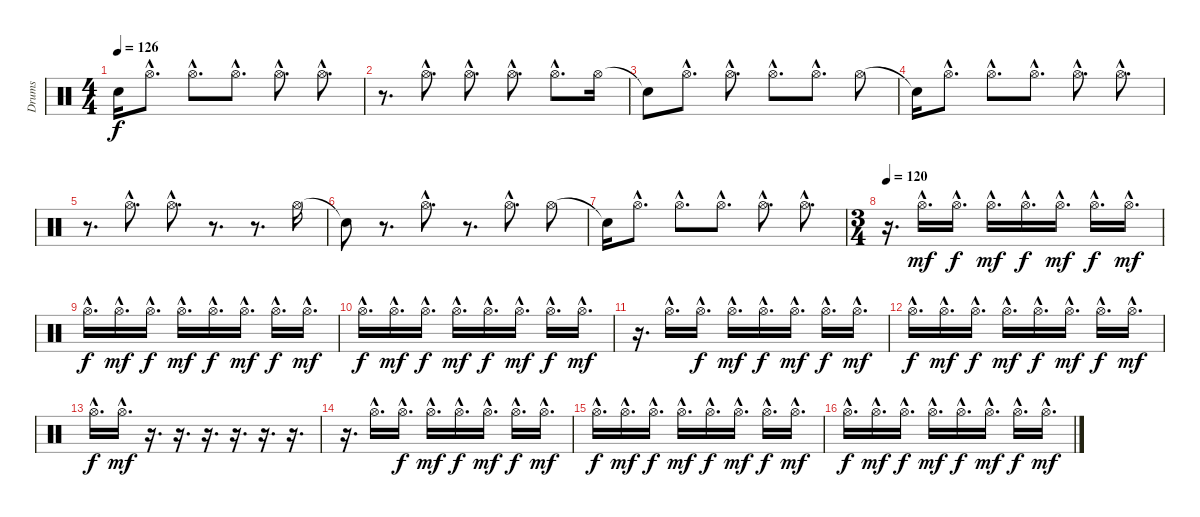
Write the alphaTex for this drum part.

\track ("Drums" "Drums") {instrument percussion}
\staff {score}
\articulation defaults
\ts (4 4)
\tempo 126
\clef neutral
\ks c "Snare (hit)"{t}.16{dy f} "Hi-Hat (open)"{hac}.8{d} "Hi-Hat (open)"{hac}.8{d} "Hi-Hat (open)"{hac}.8{d} "Hi-Hat (open)"{hac}.8{d} "Hi-Hat (open)"{hac}.8{d}
|
r.8{d} "Hi-Hat (open)"{hac}.8{d} "Hi-Hat (open)"{hac}.8{d} "Hi-Hat (open)"{hac}.8{d} "Hi-Hat (open)"{hac}.8{d} "Hi-Hat (open)".16 |
"Snare (hit)"{t}.8 "Hi-Hat (open)"{hac}.8{d} "Hi-Hat (open)"{hac}.8{d} "Hi-Hat (open)"{hac}.8{d} "Hi-Hat (open)"{hac}.8{d} "Hi-Hat (open)".8 |
"Snare (hit)"{t}.16 "Hi-Hat (open)"{hac}.8{d} "Hi-Hat (open)"{hac}.8{d} "Hi-Hat (open)"{hac}.8{d} "Hi-Hat (open)"{hac}.8{d} "Hi-Hat (open)"{hac}.8{d} |
r.8{d} "Hi-Hat (open)"{hac}.8{d} "Hi-Hat (open)"{hac}.8{d} r.8{d} r.8{d} "Hi-Hat (open)".16 |
"Snare (hit)"{t}.8 r.8{d} "Hi-Hat (open)"{hac}.8{d} r.8{d} "Hi-Hat (open)"{hac}.8{d} "Hi-Hat (open)".8 |
"Snare (hit)"{t}.16 "Hi-Hat (open)"{hac}.8{d} "Hi-Hat (open)"{hac}.8{d} "Hi-Hat (open)"{hac}.8{d} "Hi-Hat (open)"{hac}.8{d} "Hi-Hat (open)"{hac}.8{d} |
\ts (3 4)
\section ("" "")
\tempo 120
r.16{d} "Hi-Hat (open)"{hac}.16{d dy mf} "Hi-Hat (open)"{hac}.16{d dy f} "Hi-Hat (open)"{hac}.16{d dy mf} "Hi-Hat (open)"{hac}.16{d dy f} "Hi-Hat (open)"{hac}.16{d dy mf} "Hi-Hat (open)"{hac}.16{d dy f} "Hi-Hat (open)"{hac}.16{d dy mf} |
"Hi-Hat (open)"{hac}.16{d dy f} "Hi-Hat (open)"{hac}.16{d dy mf} "Hi-Hat (open)"{hac}.16{d dy f} "Hi-Hat (open)"{hac}.16{d dy mf} "Hi-Hat (open)"{hac}.16{d dy f} "Hi-Hat (open)"{hac}.16{d dy mf} "Hi-Hat (open)"{hac}.16{d dy f} "Hi-Hat (open)"{hac}.16{d dy mf} |
"Hi-Hat (open)"{hac}.16{d dy f} "Hi-Hat (open)"{hac}.16{d dy mf} "Hi-Hat (open)"{hac}.16{d dy f} "Hi-Hat (open)"{hac}.16{d dy mf} "Hi-Hat (open)"{hac}.16{d dy f} "Hi-Hat (open)"{hac}.16{d dy mf} "Hi-Hat (open)"{hac}.16{d dy f} "Hi-Hat (open)"{hac}.16{d dy mf} |
r.16{d} "Hi-Hat (open)"{hac}.16{d} "Hi-Hat (open)"{hac}.16{d dy f} "Hi-Hat (open)"{hac}.16{d dy mf} "Hi-Hat (open)"{hac}.16{d dy f} "Hi-Hat (open)"{hac}.16{d dy mf} "Hi-Hat (open)"{hac}.16{d dy f} "Hi-Hat (open)"{hac}.16{d dy mf} |
"Hi-Hat (open)"{hac}.16{d dy f} "Hi-Hat (open)"{hac}.16{d dy mf} "Hi-Hat (open)"{hac}.16{d dy f} "Hi-Hat (open)"{hac}.16{d dy mf} "Hi-Hat (open)"{hac}.16{d dy f} "Hi-Hat (open)"{hac}.16{d dy mf} "Hi-Hat (open)"{hac}.16{d dy f} "Hi-Hat (open)"{hac}.16{d dy mf} |
"Hi-Hat (open)"{hac}.16{d dy f} "Hi-Hat (open)"{hac}.16{d dy mf} r.16{d} r.16{d} r.16{d} r.16{d} r.16{d} r.16{d} |
r.16{d} "Hi-Hat (open)"{hac}.16{d} "Hi-Hat (open)"{hac}.16{d dy f} "Hi-Hat (open)"{hac}.16{d dy mf} "Hi-Hat (open)"{hac}.16{d dy f} "Hi-Hat (open)"{hac}.16{d dy mf} "Hi-Hat (open)"{hac}.16{d dy f} "Hi-Hat (open)"{hac}.16{d dy mf} |
"Hi-Hat (open)"{hac}.16{d dy f} "Hi-Hat (open)"{hac}.16{d dy mf} "Hi-Hat (open)"{hac}.16{d dy f} "Hi-Hat (open)"{hac}.16{d dy mf} "Hi-Hat (open)"{hac}.16{d dy f} "Hi-Hat (open)"{hac}.16{d dy mf} "Hi-Hat (open)"{hac}.16{d dy f} "Hi-Hat (open)"{hac}.16{d dy mf} |
"Hi-Hat (open)"{hac}.16{d dy f} "Hi-Hat (open)"{hac}.16{d dy mf} "Hi-Hat (open)"{hac}.16{d dy f} "Hi-Hat (open)"{hac}.16{d dy mf} "Hi-Hat (open)"{hac}.16{d dy f} "Hi-Hat (open)"{hac}.16{d dy mf} "Hi-Hat (open)"{hac}.16{d dy f} "Hi-Hat (open)"{hac}.16{d dy mf}
